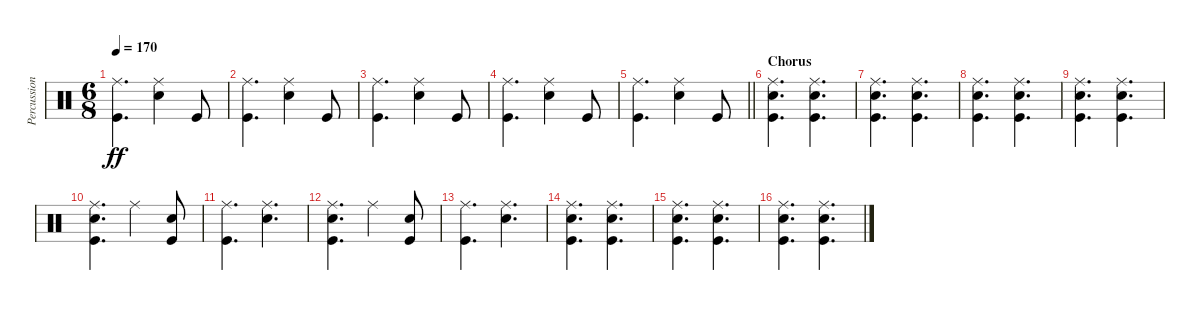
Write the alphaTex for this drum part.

\track ("Percussion" "Percussion") {instrument percussion}
\staff {score}
\articulation defaults
\ts (6 8)
\tempo 170
\clef neutral
\ks c
("Ride (middle)" "Kick (hit)").4{d dy ff} ("Ride (middle)" "Snare (hit) 2").4 "Kick (hit)".8 |
("Ride (middle)" "Kick (hit)").4{d} ("Ride (middle)" "Snare (hit) 2").4 "Kick (hit)".8 |
("Ride (middle)" "Kick (hit)").4{d} ("Ride (middle)" "Snare (hit) 2").4 "Kick (hit)".8 |
("Ride (middle)" "Kick (hit)").4{d} ("Ride (middle)" "Snare (hit) 2").4 "Kick (hit)".8 |
\barLineRight lightlight
("Ride (middle)" "Kick (hit)").4{d} ("Ride (middle)" "Snare (hit) 2").4 "Kick (hit)".8 |
\section ("" "Chorus")
("Ride (middle)" "Snare (hit) 2" "Kick (hit)").4{d} ("Ride (middle)" "Snare (hit) 2" "Kick (hit)").4{d} |
("Ride (middle)" "Snare (hit) 2" "Kick (hit)").4{d} ("Ride (middle)" "Snare (hit) 2" "Kick (hit)").4{d} |
("Ride (middle)" "Snare (hit) 2" "Kick (hit)").4{d} ("Ride (middle)" "Snare (hit) 2" "Kick (hit)").4{d} |
("Ride (middle)" "Snare (hit) 2" "Kick (hit)").4{d} ("Ride (middle)" "Snare (hit) 2" "Kick (hit)").4{d} |
("Ride (middle)" "Snare (hit) 2" "Kick (hit)").4{d} "Ride (middle)".4 ("Snare (hit) 2" "Kick (hit)").8 |
("Ride (middle)" "Kick (hit)").4{d} ("Ride (middle)" "Snare (hit) 2").4{d} |
("Ride (middle)" "Snare (hit) 2" "Kick (hit)").4{d} "Ride (middle)".4 ("Snare (hit) 2" "Kick (hit)").8 |
("Ride (middle)" "Kick (hit)").4{d} ("Ride (middle)" "Snare (hit) 2").4{d} |
("Ride (middle)" "Snare (hit) 2" "Kick (hit)").4{d} ("Ride (middle)" "Snare (hit) 2" "Kick (hit)").4{d} |
("Ride (middle)" "Snare (hit) 2" "Kick (hit)").4{d} ("Ride (middle)" "Snare (hit) 2" "Kick (hit)").4{d} |
("Ride (middle)" "Snare (hit) 2" "Kick (hit)").4{d} ("Ride (middle)" "Snare (hit) 2" "Kick (hit)").4{d}
